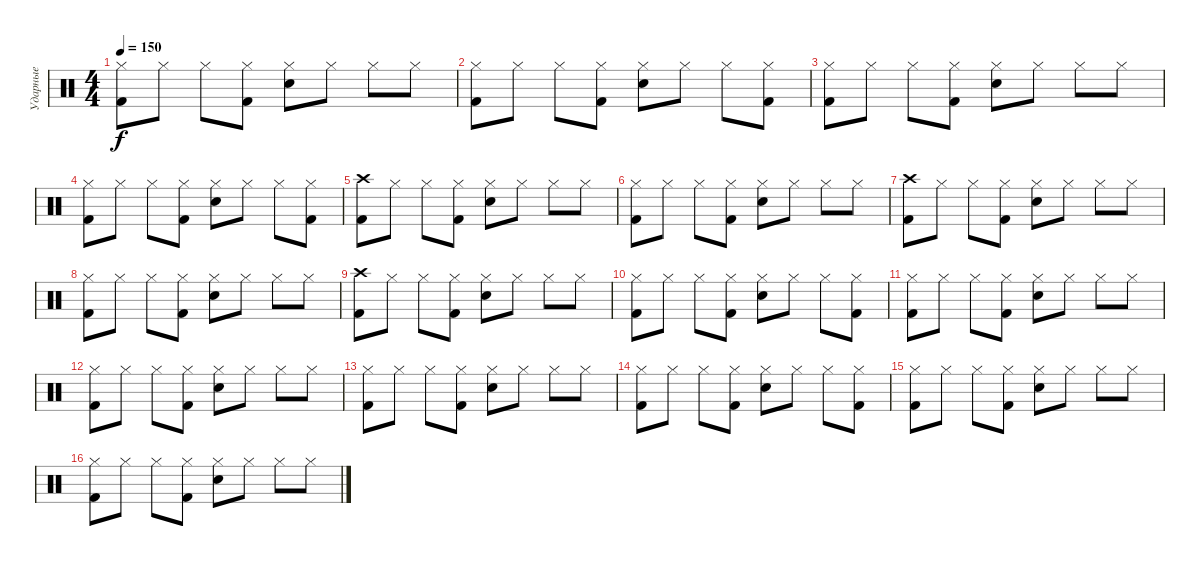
\track ("Ударные" "Ударные") {instrument percussion}
\staff {score}
\articulation defaults
\ts (4 4)
\tempo 150
\clef neutral
\ks c
("Hi-Hat (closed)" "Kick (hit) 2").8{dy f} "Hi-Hat (closed)".8 "Hi-Hat (closed)".8 ("Hi-Hat (closed)" "Kick (hit) 2").8 ("Hi-Hat (closed)" "Electric Snare (hit)").8 "Hi-Hat (closed)".8 "Hi-Hat (closed)".8 "Hi-Hat (closed)".8 |
("Hi-Hat (closed)" "Kick (hit) 2").8 "Hi-Hat (closed)".8 "Hi-Hat (closed)".8 ("Hi-Hat (closed)" "Kick (hit) 2").8 ("Hi-Hat (closed)" "Electric Snare (hit)").8 "Hi-Hat (closed)".8 "Hi-Hat (closed)".8 ("Hi-Hat (closed)" "Kick (hit) 2").8 |
("Hi-Hat (closed)" "Kick (hit) 2").8 "Hi-Hat (closed)".8 "Hi-Hat (closed)".8 ("Hi-Hat (closed)" "Kick (hit) 2").8 ("Hi-Hat (closed)" "Electric Snare (hit)").8 "Hi-Hat (closed)".8 "Hi-Hat (closed)".8 "Hi-Hat (closed)".8 |
("Hi-Hat (closed)" "Kick (hit) 2").8 "Hi-Hat (closed)".8 "Hi-Hat (closed)".8 ("Hi-Hat (closed)" "Kick (hit) 2").8 ("Hi-Hat (closed)" "Electric Snare (hit)").8 "Hi-Hat (closed)".8 "Hi-Hat (closed)".8 ("Hi-Hat (closed)" "Kick (hit) 2").8 |
("Crash high (hit)" "Kick (hit) 2").8 "Hi-Hat (closed)".8 "Hi-Hat (closed)".8 ("Hi-Hat (closed)" "Kick (hit) 2").8 ("Hi-Hat (closed)" "Electric Snare (hit)").8 "Hi-Hat (closed)".8 "Hi-Hat (closed)".8 "Hi-Hat (closed)".8 |
("Hi-Hat (closed)" "Kick (hit) 2").8 "Hi-Hat (closed)".8 "Hi-Hat (closed)".8 ("Hi-Hat (closed)" "Kick (hit) 2").8 ("Hi-Hat (closed)" "Electric Snare (hit)").8 "Hi-Hat (closed)".8 "Hi-Hat (closed)".8 "Hi-Hat (closed)".8 |
("Crash high (hit)" "Kick (hit) 2").8 "Hi-Hat (closed)".8 "Hi-Hat (closed)".8 ("Hi-Hat (closed)" "Kick (hit) 2").8 ("Hi-Hat (closed)" "Electric Snare (hit)").8 "Hi-Hat (closed)".8 "Hi-Hat (closed)".8 "Hi-Hat (closed)".8 |
("Hi-Hat (closed)" "Kick (hit) 2").8 "Hi-Hat (closed)".8 "Hi-Hat (closed)".8 ("Hi-Hat (closed)" "Kick (hit) 2").8 ("Hi-Hat (closed)" "Electric Snare (hit)").8 "Hi-Hat (closed)".8 "Hi-Hat (closed)".8 "Hi-Hat (closed)".8 |
("Crash high (hit)" "Kick (hit) 2").8 "Hi-Hat (closed)".8 "Hi-Hat (closed)".8 ("Hi-Hat (closed)" "Kick (hit) 2").8 ("Hi-Hat (closed)" "Electric Snare (hit)").8 "Hi-Hat (closed)".8 "Hi-Hat (closed)".8 "Hi-Hat (closed)".8 |
("Hi-Hat (closed)" "Kick (hit) 2").8 "Hi-Hat (closed)".8 "Hi-Hat (closed)".8 ("Hi-Hat (closed)" "Kick (hit) 2").8 ("Hi-Hat (closed)" "Electric Snare (hit)").8 "Hi-Hat (closed)".8 "Hi-Hat (closed)".8 ("Hi-Hat (closed)" "Kick (hit) 2").8 |
("Hi-Hat (closed)" "Kick (hit) 2").8 "Hi-Hat (closed)".8 "Hi-Hat (closed)".8 ("Hi-Hat (closed)" "Kick (hit) 2").8 ("Hi-Hat (closed)" "Electric Snare (hit)").8 "Hi-Hat (closed)".8 "Hi-Hat (closed)".8 "Hi-Hat (closed)".8 |
("Hi-Hat (closed)" "Kick (hit) 2").8 "Hi-Hat (closed)".8 "Hi-Hat (closed)".8 ("Hi-Hat (closed)" "Kick (hit) 2").8 ("Hi-Hat (closed)" "Electric Snare (hit)").8 "Hi-Hat (closed)".8 "Hi-Hat (closed)".8 "Hi-Hat (closed)".8 |
("Hi-Hat (closed)" "Kick (hit) 2").8 "Hi-Hat (closed)".8 "Hi-Hat (closed)".8 ("Hi-Hat (closed)" "Kick (hit) 2").8 ("Hi-Hat (closed)" "Electric Snare (hit)").8 "Hi-Hat (closed)".8 "Hi-Hat (closed)".8 "Hi-Hat (closed)".8 |
("Hi-Hat (closed)" "Kick (hit) 2").8 "Hi-Hat (closed)".8 "Hi-Hat (closed)".8 ("Hi-Hat (closed)" "Kick (hit) 2").8 ("Hi-Hat (closed)" "Electric Snare (hit)").8 "Hi-Hat (closed)".8 "Hi-Hat (closed)".8 ("Hi-Hat (closed)" "Kick (hit) 2").8 |
("Hi-Hat (closed)" "Kick (hit) 2").8 "Hi-Hat (closed)".8 "Hi-Hat (closed)".8 ("Hi-Hat (closed)" "Kick (hit) 2").8 ("Hi-Hat (closed)" "Electric Snare (hit)").8 "Hi-Hat (closed)".8 "Hi-Hat (closed)".8 "Hi-Hat (closed)".8 |
("Hi-Hat (closed)" "Kick (hit) 2").8 "Hi-Hat (closed)".8 "Hi-Hat (closed)".8 ("Hi-Hat (closed)" "Kick (hit) 2").8 ("Hi-Hat (closed)" "Electric Snare (hit)").8 "Hi-Hat (closed)".8 "Hi-Hat (closed)".8 "Hi-Hat (closed)".8
